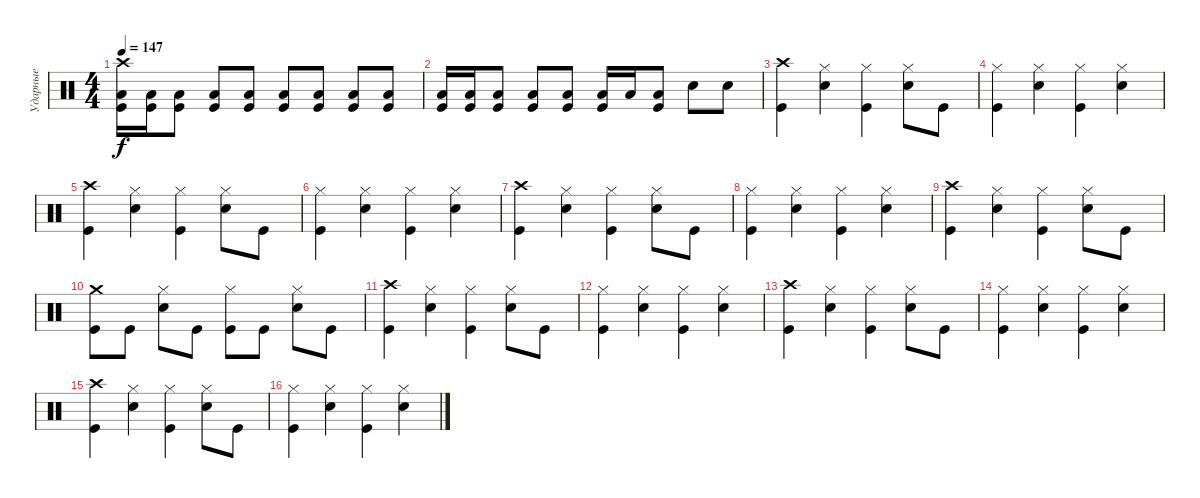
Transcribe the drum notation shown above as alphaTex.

\track ("Ударные" "Ударные") {instrument percussion}
\staff {score}
\articulation defaults
\ts (4 4)
\tempo 147
\clef neutral
\ks c
("Crash high (hit)" "Low Tom (hit)" "Kick (hit)").16{dy f} ("Low Tom (hit)" "Kick (hit)").16 ("Low Tom (hit)" "Kick (hit)").8 ("Low Tom (hit)" "Kick (hit)").8 ("Low Tom (hit)" "Kick (hit)").8 ("Low Tom (hit)" "Kick (hit)").8 ("Low Tom (hit)" "Kick (hit)").8 ("Low Tom (hit)" "Kick (hit)").8 ("Low Tom (hit)" "Kick (hit)").8 |
("Low Tom (hit)" "Kick (hit)").16 ("Low Tom (hit)" "Kick (hit)").16 ("Low Tom (hit)" "Kick (hit)").8 ("Low Tom (hit)" "Kick (hit)").8 ("Low Tom (hit)" "Kick (hit)").8 ("Low Tom (hit)" "Kick (hit)").16 "Low Tom (hit)".16 ("Low Tom (hit)" "Kick (hit)").8 "Electric Snare (hit)".8 "Electric Snare (hit)".8 |
("Crash high (hit)" "Kick (hit)").4 ("Hi-Hat (closed)" "Electric Snare (hit)").4 ("Hi-Hat (closed)" "Kick (hit)").4 ("Hi-Hat (closed)" "Electric Snare (hit)").8 "Kick (hit)".8 |
("Hi-Hat (closed)" "Kick (hit)").4 ("Hi-Hat (closed)" "Electric Snare (hit)").4 ("Hi-Hat (closed)" "Kick (hit)").4 ("Hi-Hat (closed)" "Electric Snare (hit)").4 |
("Crash high (hit)" "Kick (hit)").4 ("Hi-Hat (closed)" "Electric Snare (hit)").4 ("Hi-Hat (closed)" "Kick (hit)").4 ("Hi-Hat (closed)" "Electric Snare (hit)").8 "Kick (hit)".8 |
("Hi-Hat (closed)" "Kick (hit)").4 ("Hi-Hat (closed)" "Electric Snare (hit)").4 ("Hi-Hat (closed)" "Kick (hit)").4 ("Hi-Hat (closed)" "Electric Snare (hit)").4 |
("Crash high (hit)" "Kick (hit)").4 ("Hi-Hat (closed)" "Electric Snare (hit)").4 ("Hi-Hat (closed)" "Kick (hit)").4 ("Hi-Hat (closed)" "Electric Snare (hit)").8 "Kick (hit)".8 |
("Hi-Hat (closed)" "Kick (hit)").4 ("Hi-Hat (closed)" "Electric Snare (hit)").4 ("Hi-Hat (closed)" "Kick (hit)").4 ("Hi-Hat (closed)" "Electric Snare (hit)").4 |
("Crash high (hit)" "Kick (hit)").4 ("Hi-Hat (closed)" "Electric Snare (hit)").4 ("Hi-Hat (closed)" "Kick (hit)").4 ("Hi-Hat (closed)" "Electric Snare (hit)").8 "Kick (hit)".8 |
("Crash medium (hit)" "Kick (hit)").8 "Kick (hit)".8 ("Hi-Hat (closed)" "Electric Snare (hit)").8 "Kick (hit)".8 ("Hi-Hat (closed)" "Kick (hit)").8 "Kick (hit)".8 ("Hi-Hat (closed)" "Electric Snare (hit)").8 "Kick (hit)".8 |
("Crash high (hit)" "Kick (hit)").4 ("Hi-Hat (closed)" "Electric Snare (hit)").4 ("Hi-Hat (closed)" "Kick (hit)").4 ("Hi-Hat (closed)" "Electric Snare (hit)").8 "Kick (hit)".8 |
("Hi-Hat (closed)" "Kick (hit)").4 ("Hi-Hat (closed)" "Electric Snare (hit)").4 ("Hi-Hat (closed)" "Kick (hit)").4 ("Hi-Hat (closed)" "Electric Snare (hit)").4 |
("Crash high (hit)" "Kick (hit)").4 ("Hi-Hat (closed)" "Electric Snare (hit)").4 ("Hi-Hat (closed)" "Kick (hit)").4 ("Hi-Hat (closed)" "Electric Snare (hit)").8 "Kick (hit)".8 |
("Hi-Hat (closed)" "Kick (hit)").4 ("Hi-Hat (closed)" "Electric Snare (hit)").4 ("Hi-Hat (closed)" "Kick (hit)").4 ("Hi-Hat (closed)" "Electric Snare (hit)").4 |
("Crash high (hit)" "Kick (hit)").4 ("Hi-Hat (closed)" "Electric Snare (hit)").4 ("Hi-Hat (closed)" "Kick (hit)").4 ("Hi-Hat (closed)" "Electric Snare (hit)").8 "Kick (hit)".8 |
("Hi-Hat (closed)" "Kick (hit)").4 ("Hi-Hat (closed)" "Electric Snare (hit)").4 ("Hi-Hat (closed)" "Kick (hit)").4 ("Hi-Hat (closed)" "Electric Snare (hit)").4
